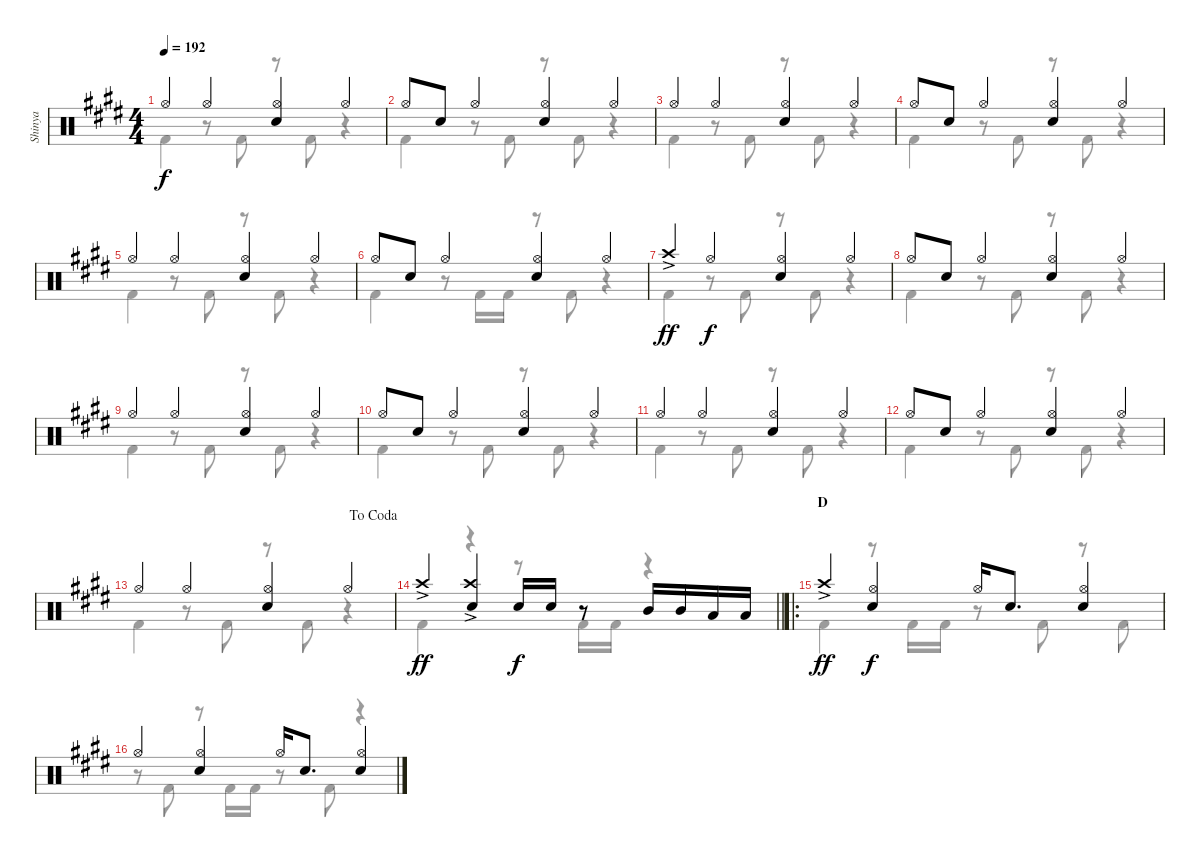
\track ("Shinya" "Shinya") {instrument percussion}
\staff {score}
\articulation defaults
\voice
\ts (4 4)
\tempo 192
\clef neutral
\ks c#minor "Hi-Hat (open)".4{dy f} "Hi-Hat (open)".4
("Hi-Hat (open)" "Snare (hit) 2").4 "Hi-Hat (open)".4 |
"Hi-Hat (open)".8 "Snare (hit) 2".8 "Hi-Hat (open)".4 ("Hi-Hat (open)" "Snare (hit) 2").4 "Hi-Hat (open)".4 |
"Hi-Hat (open)".4 "Hi-Hat (open)".4 ("Hi-Hat (open)" "Snare (hit) 2").4 "Hi-Hat (open)".4 |
"Hi-Hat (open)".8 "Snare (hit) 2".8 "Hi-Hat (open)".4 ("Hi-Hat (open)" "Snare (hit) 2").4 "Hi-Hat (open)".4 |
"Hi-Hat (open)".4 "Hi-Hat (open)".4 ("Hi-Hat (open)" "Snare (hit) 2").4 "Hi-Hat (open)".4 |
"Hi-Hat (open)".8 "Snare (hit) 2".8 "Hi-Hat (open)".4 ("Hi-Hat (open)" "Snare (hit) 2").4 "Hi-Hat (open)".4 |
"Crash high (hit)"{ac}.4{dy ff} "Hi-Hat (open)".4{dy f} ("Hi-Hat (open)" "Snare (hit) 2").4 "Hi-Hat (open)".4 |
"Hi-Hat (open)".8 "Snare (hit) 2".8 "Hi-Hat (open)".4 ("Hi-Hat (open)" "Snare (hit) 2").4 "Hi-Hat (open)".4 |
"Hi-Hat (open)".4 "Hi-Hat (open)".4 ("Hi-Hat (open)" "Snare (hit) 2").4 "Hi-Hat (open)".4 |
"Hi-Hat (open)".8 "Snare (hit) 2".8 "Hi-Hat (open)".4 ("Hi-Hat (open)" "Snare (hit) 2").4 "Hi-Hat (open)".4 |
"Hi-Hat (open)".4 "Hi-Hat (open)".4 ("Hi-Hat (open)" "Snare (hit) 2").4 "Hi-Hat (open)".4 |
"Hi-Hat (open)".8 "Snare (hit) 2".8 "Hi-Hat (open)".4 ("Hi-Hat (open)" "Snare (hit) 2").4 "Hi-Hat (open)".4 |
\jump dacoda "Hi-Hat (open)".4 "Hi-Hat (open)".4
("Hi-Hat (open)" "Snare (hit) 2").4 "Hi-Hat (open)".4 |
\barLineRight lightlight "Crash high (hit)"{ac}.4{dy ff}
("Crash high (hit)"{ac} "Snare (hit) 2").4 "Snare (hit) 2".16{dy f} "Snare (hit) 2".16 r.8 "Mid Tom (hit)".16 "Mid Tom (hit)".16 "Low Tom (hit)".16 "Low Tom (hit)".16 |
\ro
\section ("" "D")
"Crash high (hit)"{ac}.4{dy ff} ("Hi-Hat (open)" "Snare (hit) 2").4{dy f} "Hi-Hat (open)".16 "Snare (hit) 2".8{d} ("Hi-Hat (open)" "Snare (hit) 2").4 |
"Hi-Hat (open)".4 ("Hi-Hat (open)" "Snare (hit) 2").4 "Hi-Hat (open)".16 "Snare (hit) 2".8{d} ("Hi-Hat (open)" "Snare (hit) 2").4
\voice
\clef neutral
\ottava regular
\simile none
\ks c#minor "Kick (hit) 2".4{dy f}
r.8 "Kick (hit) 2".8 r.8 "Kick (hit) 2".8 r.4 |
"Kick (hit) 2".4 r.8 "Kick (hit) 2".8 r.8 "Kick (hit) 2".8 r.4 |
"Kick (hit) 2".4 r.8 "Kick (hit) 2".8 r.8 "Kick (hit) 2".8 r.4 |
"Kick (hit) 2".4 r.8 "Kick (hit) 2".8 r.8 "Kick (hit) 2".8 r.4 |
"Kick (hit) 2".4 r.8 "Kick (hit) 2".8 r.8 "Kick (hit) 2".8 r.4 |
"Kick (hit) 2".4 r.8 "Kick (hit) 2".16 "Kick (hit) 2".16 r.8 "Kick (hit) 2".8 r.4 |
"Kick (hit) 2".4 r.8 "Kick (hit) 2".8 r.8 "Kick (hit) 2".8 r.4 |
"Kick (hit) 2".4 r.8 "Kick (hit) 2".8 r.8 "Kick (hit) 2".8 r.4 |
"Kick (hit) 2".4 r.8 "Kick (hit) 2".8 r.8 "Kick (hit) 2".8 r.4 |
"Kick (hit) 2".4 r.8 "Kick (hit) 2".8 r.8 "Kick (hit) 2".8 r.4 |
"Kick (hit) 2".4 r.8 "Kick (hit) 2".8 r.8 "Kick (hit) 2".8 r.4 |
"Kick (hit) 2".4 r.8 "Kick (hit) 2".8 r.8 "Kick (hit) 2".8 r.4 |
"Kick (hit) 2".4 r.8 "Kick (hit) 2".8 r.8 "Kick (hit) 2".8 r.4 |
\barLineRight lightlight "Kick (hit) 2".4
r.4 r.8 "Kick (hit) 2".16 "Kick (hit) 2".16 r.4 |
"Kick (hit) 2".4 r.8 "Kick (hit) 2".16 "Kick (hit) 2".16 r.8 "Kick (hit) 2".8 r.8 "Kick (hit) 2".8 |
r.8 "Kick (hit) 2".8 r.8 "Kick (hit) 2".16 "Kick (hit) 2".16 r.8 "Kick (hit) 2".8 r.4
